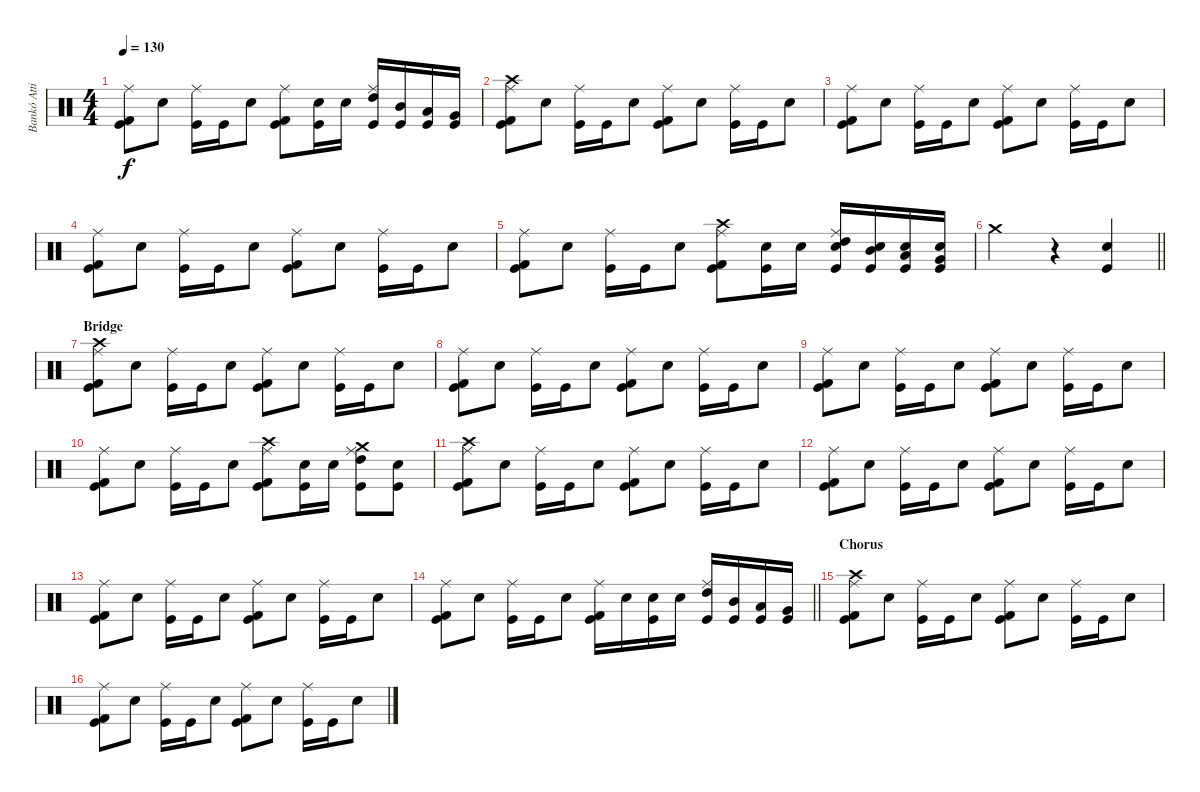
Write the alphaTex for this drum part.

\track ("Bankó Attila-Drum" "Bankó Atti") {instrument percussion}
\staff {score}
\articulation defaults
\ts (4 4)
\tempo 130
\clef neutral
\ks c
("Kick (hit) 2" "Kick (hit)" "Ride (middle)").8{dy f} "Snare (hit) 2".8 ("Kick (hit)" "Ride (middle)").16 "Kick (hit)".16 "Snare (hit) 2".8 ("Kick (hit) 2" "Kick (hit)" "Ride (middle)").8 ("Snare (hit) 2" "Kick (hit)").16 "Snare (hit) 2".16 ("High Tom (hit)" "Kick (hit)" "Ride (middle)").16 ("Mid Tom (hit)" "Kick (hit)").16 ("Low Tom (hit)" "Kick (hit)").16 ("Very Low Tom (hit)" "Kick (hit)").16 |
("Kick (hit) 2" "Kick (hit)" "Crash high (hit)" "Ride (middle)").8 "Snare (hit) 2".8 ("Kick (hit)" "Ride (middle)").16 "Kick (hit)".16 "Snare (hit) 2".8 ("Kick (hit) 2" "Kick (hit)" "Ride (middle)").8 "Snare (hit) 2".8 ("Kick (hit)" "Ride (middle)").16 "Kick (hit)".16 "Snare (hit) 2".8 |
("Kick (hit) 2" "Kick (hit)" "Ride (middle)").8 "Snare (hit) 2".8 ("Kick (hit)" "Ride (middle)").16 "Kick (hit)".16 "Snare (hit) 2".8 ("Kick (hit) 2" "Kick (hit)" "Ride (middle)").8 "Snare (hit) 2".8 ("Kick (hit)" "Ride (middle)").16 "Kick (hit)".16 "Snare (hit) 2".8 |
("Kick (hit) 2" "Kick (hit)" "Ride (middle)").8 "Snare (hit) 2".8 ("Kick (hit)" "Ride (middle)").16 "Kick (hit)".16 "Snare (hit) 2".8 ("Kick (hit) 2" "Kick (hit)" "Ride (middle)").8 "Snare (hit) 2".8 ("Kick (hit)" "Ride (middle)").16 "Kick (hit)".16 "Snare (hit) 2".8 |
("Kick (hit) 2" "Kick (hit)" "Ride (middle)").8 "Snare (hit) 2".8 ("Kick (hit)" "Ride (middle)").16 "Kick (hit)".16 "Snare (hit) 2".8 ("Kick (hit) 2" "Kick (hit)" "Crash high (hit)" "Ride (middle)").8 ("Snare (hit) 2" "Kick (hit)").16 "Snare (hit) 2".16 ("High Tom (hit)" "Kick (hit)" "Snare (hit) 2" "Ride (middle)").16 ("Mid Tom (hit)" "Kick (hit)" "Snare (hit) 2").16 ("Low Tom (hit)" "Kick (hit)" "Snare (hit) 2").16 ("Very Low Tom (hit)" "Kick (hit)" "Snare (hit) 2").16 |
\barLineRight lightlight "Crash medium (hit)".2
r.4 ("Kick (hit)" "Snare (hit) 2").4 |
\section ("" "Bridge")
("Kick (hit) 2" "Kick (hit)" "Crash high (hit)" "Ride (middle)").8 "Snare (hit) 2".8 ("Kick (hit)" "Ride (middle)").16 "Kick (hit)".16 "Snare (hit) 2".8 ("Kick (hit) 2" "Kick (hit)" "Ride (middle)").8 "Snare (hit) 2".8 ("Kick (hit)" "Ride (middle)").16 "Kick (hit)".16 "Snare (hit) 2".8 |
("Kick (hit) 2" "Kick (hit)" "Ride (middle)").8 "Snare (hit) 2".8 ("Kick (hit)" "Ride (middle)").16 "Kick (hit)".16 "Snare (hit) 2".8 ("Kick (hit) 2" "Kick (hit)" "Ride (middle)").8 "Snare (hit) 2".8 ("Kick (hit)" "Ride (middle)").16 "Kick (hit)".16 "Snare (hit) 2".8 |
("Kick (hit) 2" "Kick (hit)" "Ride (middle)").8 "Snare (hit) 2".8 ("Kick (hit)" "Ride (middle)").16 "Kick (hit)".16 "Snare (hit) 2".8 ("Kick (hit) 2" "Kick (hit)" "Ride (middle)").8 "Snare (hit) 2".8 ("Kick (hit)" "Ride (middle)").16 "Kick (hit)".16 "Snare (hit) 2".8 |
("Kick (hit) 2" "Kick (hit)" "Ride (middle)").8 "Snare (hit) 2".8 ("Kick (hit)" "Ride (middle)").16 "Kick (hit)".16 "Snare (hit) 2".8 ("Kick (hit) 2" "Kick (hit)" "Crash high (hit)" "Ride (middle)").8 ("Snare (hit) 2" "Kick (hit)").16 "Snare (hit) 2".16 ("High Tom (hit)" "Kick (hit)" "Crash medium (hit)" "Ride (middle)").8 ("Snare (hit) 2" "Kick (hit)").8 |
("Kick (hit) 2" "Kick (hit)" "Crash high (hit)" "Ride (middle)").8 "Snare (hit) 2".8 ("Kick (hit)" "Ride (middle)").16 "Kick (hit)".16 "Snare (hit) 2".8 ("Kick (hit) 2" "Kick (hit)" "Ride (middle)").8 "Snare (hit) 2".8 ("Kick (hit)" "Ride (middle)").16 "Kick (hit)".16 "Snare (hit) 2".8 |
("Kick (hit) 2" "Kick (hit)" "Ride (middle)").8 "Snare (hit) 2".8 ("Kick (hit)" "Ride (middle)").16 "Kick (hit)".16 "Snare (hit) 2".8 ("Kick (hit) 2" "Kick (hit)" "Ride (middle)").8 "Snare (hit) 2".8 ("Kick (hit)" "Ride (middle)").16 "Kick (hit)".16 "Snare (hit) 2".8 |
("Kick (hit) 2" "Kick (hit)" "Ride (middle)").8 "Snare (hit) 2".8 ("Kick (hit)" "Ride (middle)").16 "Kick (hit)".16 "Snare (hit) 2".8 ("Kick (hit) 2" "Kick (hit)" "Ride (middle)").8 "Snare (hit) 2".8 ("Kick (hit)" "Ride (middle)").16 "Kick (hit)".16 "Snare (hit) 2".8 |
\barLineRight lightlight
("Kick (hit) 2" "Kick (hit)" "Ride (middle)").8 "Snare (hit) 2".8 ("Kick (hit)" "Ride (middle)").16 "Kick (hit)".16 "Snare (hit) 2".8 ("Kick (hit) 2" "Kick (hit)" "Ride (middle)").16 "Snare (hit) 2".16 ("Snare (hit) 2" "Kick (hit)").16 "Snare (hit) 2".16 ("High Tom (hit)" "Kick (hit)" "Ride (middle)").16 ("Mid Tom (hit)" "Kick (hit)").16 ("Low Tom (hit)" "Kick (hit)").16 ("Very Low Tom (hit)" "Kick (hit)").16 |
\section ("" "Chorus")
("Kick (hit) 2" "Kick (hit)" "Crash high (hit)" "Ride (middle)").8 "Snare (hit) 2".8 ("Kick (hit)" "Ride (middle)").16 "Kick (hit)".16 "Snare (hit) 2".8 ("Kick (hit) 2" "Kick (hit)" "Ride (middle)").8 "Snare (hit) 2".8 ("Kick (hit)" "Ride (middle)").16 "Kick (hit)".16 "Snare (hit) 2".8 |
("Kick (hit) 2" "Kick (hit)" "Ride (middle)").8 "Snare (hit) 2".8 ("Kick (hit)" "Ride (middle)").16 "Kick (hit)".16 "Snare (hit) 2".8 ("Kick (hit) 2" "Kick (hit)" "Ride (middle)").8 "Snare (hit) 2".8 ("Kick (hit)" "Ride (middle)").16 "Kick (hit)".16 "Snare (hit) 2".8
